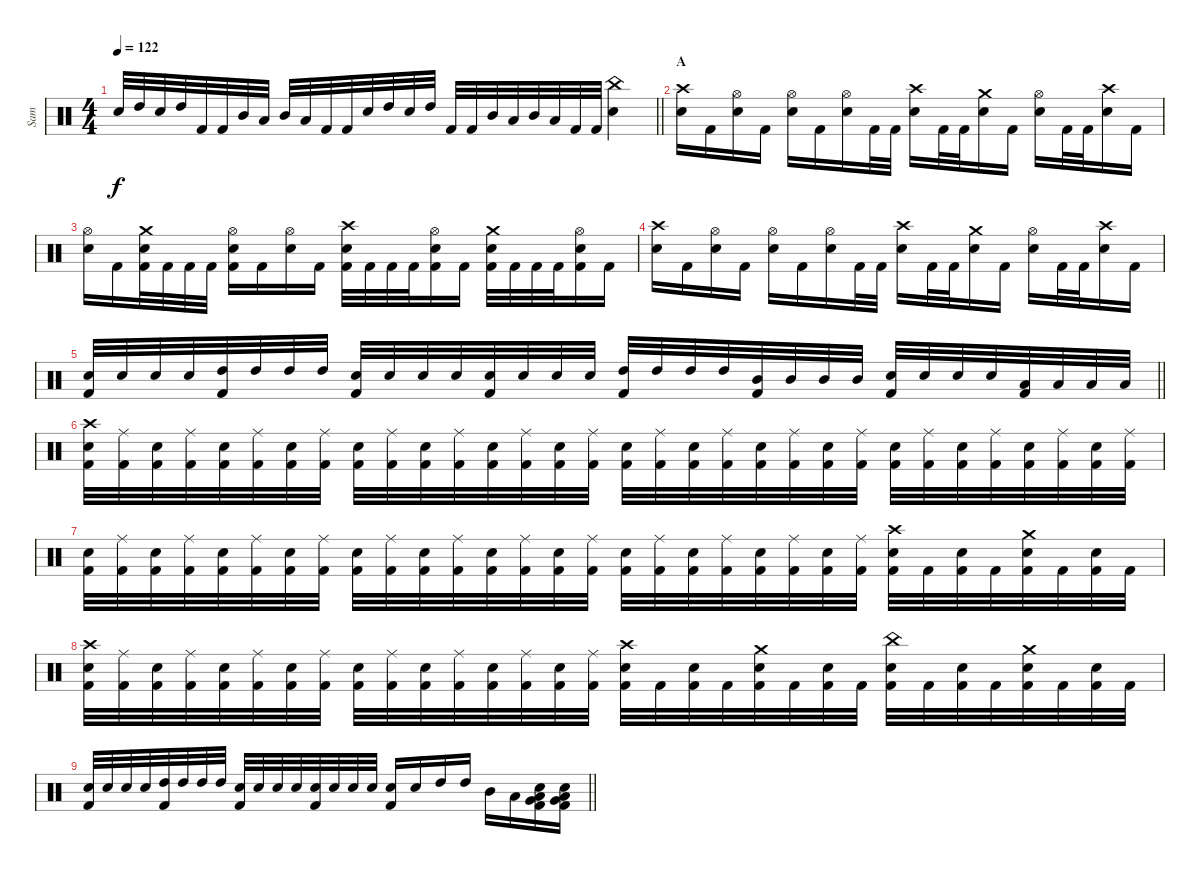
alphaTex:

\track ("Sam" "Sam") {solo instrument percussion}
\staff {score}
\articulation defaults
\ts (4 4)
\tempo 122
\clef neutral
\barLineRight lightlight
\ks c "Electric Snare (hit)".32{dy f} "High Tom (hit)".32 "Electric Snare (hit)".32 "High Tom (hit)".32 "Kick (hit) 2".32 "Kick (hit) 2".32 "Mid Tom (hit)".32 "Low Tom (hit)".32 "Mid Tom (hit)".32 "Low Tom (hit)".32 "Kick (hit) 2".32 "Kick (hit) 2".32 "Electric Snare (hit)".32 "High Tom (hit)".32 "Electric Snare (hit)".32 "High Tom (hit)".32 "Kick (hit) 2".32 "Kick (hit) 2".32 "Mid Tom (hit)".32 "Low Tom (hit)".32 "Mid Tom (hit)".32 "Low Tom (hit)".32 "Kick (hit) 2".32 "Kick (hit) 2".32
("China (hit)" "Electric Snare (hit)").4 |
\section ("" "A")
("Crash high (hit)" "Electric Snare (hit)").16 "Kick (hit) 2".16 ("Hi-Hat (open)" "Electric Snare (hit)").16 "Kick (hit) 2".16 ("Hi-Hat (open)" "Electric Snare (hit)").16 "Kick (hit) 2".16 ("Hi-Hat (open)" "Electric Snare (hit)").16 "Kick (hit) 2".32 "Kick (hit) 2".32 ("Crash high (hit)" "Electric Snare (hit)").16 "Kick (hit) 2".32 "Kick (hit) 2".32 ("Crash medium (hit)" "Electric Snare (hit)").16 "Kick (hit) 2".16 ("Hi-Hat (open)" "Electric Snare (hit)").16 "Kick (hit) 2".32 "Kick (hit) 2".32 ("Crash high (hit)" "Electric Snare (hit)").16 "Kick (hit) 2".16 |
("Hi-Hat (open)" "Electric Snare (hit)").16 "Kick (hit) 2".16 ("Crash medium (hit)" "Electric Snare (hit)" "Kick (hit) 2").32 "Kick (hit) 2".32 "Kick (hit) 2".32 "Kick (hit) 2".32 ("Hi-Hat (open)" "Electric Snare (hit)" "Kick (hit) 2").16 "Kick (hit) 2".16 ("Hi-Hat (open)" "Electric Snare (hit)").16 "Kick (hit) 2".16 ("Crash high (hit)" "Electric Snare (hit)" "Kick (hit) 2").32 "Kick (hit) 2".32 "Kick (hit) 2".32 "Kick (hit) 2".32 ("Hi-Hat (open)" "Electric Snare (hit)" "Kick (hit) 2").16 "Kick (hit) 2".16 ("Crash medium (hit)" "Electric Snare (hit)" "Kick (hit) 2").32 "Kick (hit) 2".32 "Kick (hit) 2".32 "Kick (hit) 2".32 ("Hi-Hat (open)" "Electric Snare (hit)" "Kick (hit) 2").16 "Kick (hit) 2".16 |
("Crash high (hit)" "Electric Snare (hit)").16 "Kick (hit) 2".16 ("Hi-Hat (open)" "Electric Snare (hit)").16 "Kick (hit) 2".16 ("Hi-Hat (open)" "Electric Snare (hit)").16 "Kick (hit) 2".16 ("Hi-Hat (open)" "Electric Snare (hit)").16 "Kick (hit) 2".32 "Kick (hit) 2".32 ("Crash high (hit)" "Electric Snare (hit)").16 "Kick (hit) 2".32 "Kick (hit) 2".32 ("Crash medium (hit)" "Electric Snare (hit)").16 "Kick (hit) 2".16 ("Hi-Hat (open)" "Electric Snare (hit)").16 "Kick (hit) 2".32 "Kick (hit) 2".32 ("Crash high (hit)" "Electric Snare (hit)").16 "Kick (hit) 2".16 |
\barLineRight lightlight
("Electric Snare (hit)" "Kick (hit) 2").32 "Electric Snare (hit)".32 "Electric Snare (hit)".32 "Electric Snare (hit)".32 ("High Tom (hit)" "Kick (hit) 2").32 "High Tom (hit)".32 "High Tom (hit)".32 "High Tom (hit)".32 ("Electric Snare (hit)" "Kick (hit) 2").32 "Electric Snare (hit)".32 "Electric Snare (hit)".32 "Electric Snare (hit)".32 ("Electric Snare (hit)" "Kick (hit) 2").32 "Electric Snare (hit)".32 "Electric Snare (hit)".32 "Electric Snare (hit)".32 ("High Tom (hit)" "Kick (hit) 2").32 "High Tom (hit)".32 "High Tom (hit)".32 "High Tom (hit)".32 ("Mid Tom (hit)" "Kick (hit) 2").32 "Mid Tom (hit)".32 "Mid Tom (hit)".32 "Mid Tom (hit)".32 ("Electric Snare (hit)" "Kick (hit) 2").32 "Electric Snare (hit)".32 "Electric Snare (hit)".32 "Electric Snare (hit)".32 ("Low Tom (hit)" "Kick (hit) 2").32 "Low Tom (hit)".32 "Low Tom (hit)".32 "Low Tom (hit)".32 |
("Electric Snare (hit)" "Crash high (hit)" "Kick (hit) 2").32 ("Ride (middle)" "Kick (hit) 2").32 ("Electric Snare (hit)" "Kick (hit) 2").32 ("Ride (middle)" "Kick (hit) 2").32 ("Electric Snare (hit)" "Kick (hit) 2").32 ("Ride (middle)" "Kick (hit) 2").32 ("Electric Snare (hit)" "Kick (hit) 2").32 ("Ride (middle)" "Kick (hit) 2").32 ("Electric Snare (hit)" "Kick (hit) 2").32 ("Ride (middle)" "Kick (hit) 2").32 ("Electric Snare (hit)" "Kick (hit) 2").32 ("Ride (middle)" "Kick (hit) 2").32 ("Electric Snare (hit)" "Kick (hit) 2").32 ("Ride (middle)" "Kick (hit) 2").32 ("Electric Snare (hit)" "Kick (hit) 2").32 ("Ride (middle)" "Kick (hit) 2").32 ("Electric Snare (hit)" "Kick (hit) 2").32 ("Ride (middle)" "Kick (hit) 2").32 ("Electric Snare (hit)" "Kick (hit) 2").32 ("Ride (middle)" "Kick (hit) 2").32 ("Electric Snare (hit)" "Kick (hit) 2").32 ("Ride (middle)" "Kick (hit) 2").32 ("Electric Snare (hit)" "Kick (hit) 2").32 ("Ride (middle)" "Kick (hit) 2").32 ("Electric Snare (hit)" "Kick (hit) 2").32 ("Ride (middle)" "Kick (hit) 2").32 ("Electric Snare (hit)" "Kick (hit) 2").32 ("Ride (middle)" "Kick (hit) 2").32 ("Electric Snare (hit)" "Kick (hit) 2").32 ("Ride (middle)" "Kick (hit) 2").32 ("Electric Snare (hit)" "Kick (hit) 2").32 ("Ride (middle)" "Kick (hit) 2").32 |
("Electric Snare (hit)" "Kick (hit) 2").32 ("Ride (middle)" "Kick (hit) 2").32 ("Electric Snare (hit)" "Kick (hit) 2").32 ("Ride (middle)" "Kick (hit) 2").32 ("Electric Snare (hit)" "Kick (hit) 2").32 ("Ride (middle)" "Kick (hit) 2").32 ("Electric Snare (hit)" "Kick (hit) 2").32 ("Ride (middle)" "Kick (hit) 2").32 ("Electric Snare (hit)" "Kick (hit) 2").32 ("Ride (middle)" "Kick (hit) 2").32 ("Electric Snare (hit)" "Kick (hit) 2").32 ("Ride (middle)" "Kick (hit) 2").32 ("Electric Snare (hit)" "Kick (hit) 2").32 ("Ride (middle)" "Kick (hit) 2").32 ("Electric Snare (hit)" "Kick (hit) 2").32 ("Ride (middle)" "Kick (hit) 2").32 ("Electric Snare (hit)" "Kick (hit) 2").32 ("Ride (middle)" "Kick (hit) 2").32 ("Electric Snare (hit)" "Kick (hit) 2").32 ("Ride (middle)" "Kick (hit) 2").32 ("Electric Snare (hit)" "Kick (hit) 2").32 ("Ride (middle)" "Kick (hit) 2").32 ("Electric Snare (hit)" "Kick (hit) 2").32 ("Ride (middle)" "Kick (hit) 2").32 ("Electric Snare (hit)" "Crash high (hit)" "Kick (hit) 2").32 "Kick (hit) 2".32 ("Electric Snare (hit)" "Kick (hit) 2").32 "Kick (hit) 2".32 ("Electric Snare (hit)" "Crash medium (hit)" "Kick (hit) 2").32 "Kick (hit) 2".32 ("Electric Snare (hit)" "Kick (hit) 2").32 "Kick (hit) 2".32 |
("Electric Snare (hit)" "Crash high (hit)" "Kick (hit) 2").32 ("Ride (middle)" "Kick (hit) 2").32 ("Electric Snare (hit)" "Kick (hit) 2").32 ("Ride (middle)" "Kick (hit) 2").32 ("Electric Snare (hit)" "Kick (hit) 2").32 ("Ride (middle)" "Kick (hit) 2").32 ("Electric Snare (hit)" "Kick (hit) 2").32 ("Ride (middle)" "Kick (hit) 2").32 ("Electric Snare (hit)" "Kick (hit) 2").32 ("Ride (middle)" "Kick (hit) 2").32 ("Electric Snare (hit)" "Kick (hit) 2").32 ("Ride (middle)" "Kick (hit) 2").32 ("Electric Snare (hit)" "Kick (hit) 2").32 ("Ride (middle)" "Kick (hit) 2").32 ("Electric Snare (hit)" "Kick (hit) 2").32 ("Ride (middle)" "Kick (hit) 2").32 ("Electric Snare (hit)" "Crash high (hit)" "Kick (hit) 2").32 "Kick (hit) 2".32 ("Electric Snare (hit)" "Kick (hit) 2").32 "Kick (hit) 2".32 ("Electric Snare (hit)" "Crash medium (hit)" "Kick (hit) 2").32 "Kick (hit) 2".32 ("Electric Snare (hit)" "Kick (hit) 2").32 "Kick (hit) 2".32 ("Electric Snare (hit)" "China (hit)" "Kick (hit) 2").32 "Kick (hit) 2".32 ("Electric Snare (hit)" "Kick (hit) 2").32 "Kick (hit) 2".32 ("Electric Snare (hit)" "Crash medium (hit)" "Kick (hit) 2").32 "Kick (hit) 2".32 ("Electric Snare (hit)" "Kick (hit) 2").32 "Kick (hit) 2".32 |
\barLineRight lightlight
("Electric Snare (hit)" "Kick (hit) 2").32 "Electric Snare (hit)".32 "Electric Snare (hit)".32 "Electric Snare (hit)".32 ("High Tom (hit)" "Kick (hit) 2").32 "High Tom (hit)".32 "High Tom (hit)".32 "High Tom (hit)".32 ("Electric Snare (hit)" "Kick (hit) 2").32 "Electric Snare (hit)".32 "Electric Snare (hit)".32 "Electric Snare (hit)".32 ("Electric Snare (hit)" "Kick (hit) 2").32 "Electric Snare (hit)".32 "Electric Snare (hit)".32 "Electric Snare (hit)".32 ("Electric Snare (hit)" "Kick (hit) 2").16 "Electric Snare (hit)".16 "High Tom (hit)".16 "High Tom (hit)".16 "Mid Tom (hit)".16 "Low Tom (hit)".16 ("Electric Snare (hit)" "Very Low Tom (hit)" "Low Floor Tom (hit)" "Kick (hit) 2").16 ("Electric Snare (hit)" "Very Low Tom (hit)" "Low Floor Tom (hit)" "Kick (hit) 2").16
